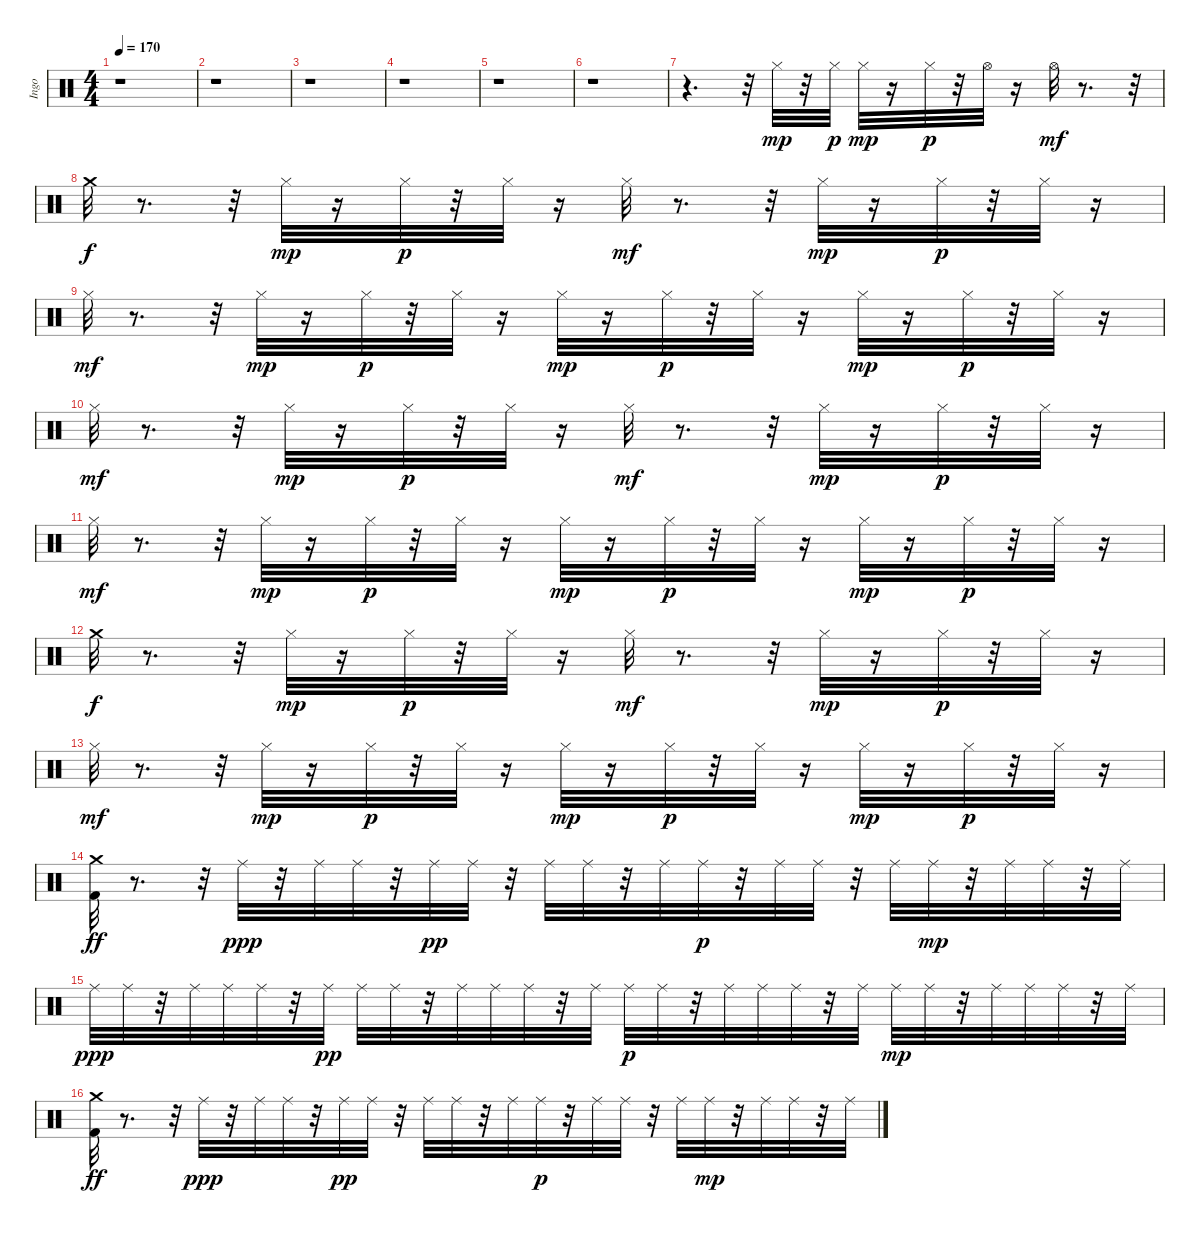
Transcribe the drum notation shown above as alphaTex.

\track ("Ingo" "Ingo") {instrument percussion}
\staff {score}
\articulation defaults
\ts (4 4)
\tempo 170
\clef neutral
\ks c
r.1{dy ff} |
r.1 |
r.1 |
r.1 |
r.1 |
r.1 |
r.4{d} r.32 "Hi-Hat (closed)".32{dy mp} r.32 "Hi-Hat (closed)".32{dy p} "Hi-Hat (closed)".32{dy mp} r.16 "Hi-Hat (closed)".32{dy p} r.32 "Hi-Hat (open)".32 r.16 "Hi-Hat (open)".32{dy mf} r.8{d} r.32 |
"Crash medium (hit)".32{dy f} r.8{d} r.32 "Hi-Hat (closed)".32{dy mp} r.16 "Hi-Hat (closed)".32{dy p} r.32 "Hi-Hat (closed)".32 r.16 "Hi-Hat (closed)".32{dy mf} r.8{d} r.32 "Hi-Hat (closed)".32{dy mp} r.16 "Hi-Hat (closed)".32{dy p} r.32 "Hi-Hat (closed)".32 r.16 |
"Hi-Hat (closed)".32{dy mf} r.8{d} r.32 "Hi-Hat (closed)".32{dy mp} r.16 "Hi-Hat (closed)".32{dy p} r.32 "Hi-Hat (closed)".32 r.16 "Hi-Hat (closed)".32{dy mp} r.16 "Hi-Hat (closed)".32{dy p} r.32 "Hi-Hat (closed)".32 r.16 "Hi-Hat (closed)".32{dy mp} r.16 "Hi-Hat (closed)".32{dy p} r.32 "Hi-Hat (closed)".32 r.16 |
"Hi-Hat (closed)".32{dy mf} r.8{d} r.32 "Hi-Hat (closed)".32{dy mp} r.16 "Hi-Hat (closed)".32{dy p} r.32 "Hi-Hat (closed)".32 r.16 "Hi-Hat (closed)".32{dy mf} r.8{d} r.32 "Hi-Hat (closed)".32{dy mp} r.16 "Hi-Hat (closed)".32{dy p} r.32 "Hi-Hat (closed)".32 r.16 |
"Hi-Hat (closed)".32{dy mf} r.8{d} r.32 "Hi-Hat (closed)".32{dy mp} r.16 "Hi-Hat (closed)".32{dy p} r.32 "Hi-Hat (closed)".32 r.16 "Hi-Hat (closed)".32{dy mp} r.16 "Hi-Hat (closed)".32{dy p} r.32 "Hi-Hat (closed)".32 r.16 "Hi-Hat (closed)".32{dy mp} r.16 "Hi-Hat (closed)".32{dy p} r.32 "Hi-Hat (closed)".32 r.16 |
"Crash medium (hit)".32{dy f} r.8{d} r.32 "Hi-Hat (closed)".32{dy mp} r.16 "Hi-Hat (closed)".32{dy p} r.32 "Hi-Hat (closed)".32 r.16 "Hi-Hat (closed)".32{dy mf} r.8{d} r.32 "Hi-Hat (closed)".32{dy mp} r.16 "Hi-Hat (closed)".32{dy p} r.32 "Hi-Hat (closed)".32 r.16 |
"Hi-Hat (closed)".32{dy mf} r.8{d} r.32 "Hi-Hat (closed)".32{dy mp} r.16 "Hi-Hat (closed)".32{dy p} r.32 "Hi-Hat (closed)".32 r.16 "Hi-Hat (closed)".32{dy mp} r.16 "Hi-Hat (closed)".32{dy p} r.32 "Hi-Hat (closed)".32 r.16 "Hi-Hat (closed)".32{dy mp} r.16 "Hi-Hat (closed)".32{dy p} r.32 "Hi-Hat (closed)".32 r.16 |
("Crash medium (hit)" "Kick (hit) 2").32{dy ff} r.8{d} r.32 "Ride (middle)".32{dy ppp} r.32 "Ride (middle)".32 "Ride (middle)".32 r.32 "Ride (middle)".32{dy pp} "Ride (middle)".32 r.32 "Ride (middle)".32 "Ride (middle)".32 r.32 "Ride (middle)".32 "Ride (middle)".32{dy p} r.32 "Ride (middle)".32 "Ride (middle)".32 r.32 "Ride (middle)".32 "Ride (middle)".32{dy mp} r.32 "Ride (middle)".32 "Ride (middle)".32 r.32 "Ride (middle)".32 |
"Ride (middle)".32{dy ppp} "Ride (middle)".32 r.32 "Ride (middle)".32 "Ride (middle)".32 "Ride (middle)".32 r.32 "Ride (middle)".32{dy pp} "Ride (middle)".32 "Ride (middle)".32 r.32 "Ride (middle)".32 "Ride (middle)".32 "Ride (middle)".32 r.32 "Ride (middle)".32 "Ride (middle)".32{dy p} "Ride (middle)".32 r.32 "Ride (middle)".32 "Ride (middle)".32 "Ride (middle)".32 r.32 "Ride (middle)".32 "Ride (middle)".32{dy mp} "Ride (middle)".32 r.32 "Ride (middle)".32 "Ride (middle)".32 "Ride (middle)".32 r.32 "Ride (middle)".32 |
("Crash medium (hit)" "Kick (hit) 2").32{dy ff} r.8{d} r.32 "Ride (middle)".32{dy ppp} r.32 "Ride (middle)".32 "Ride (middle)".32 r.32 "Ride (middle)".32{dy pp} "Ride (middle)".32 r.32 "Ride (middle)".32 "Ride (middle)".32 r.32 "Ride (middle)".32 "Ride (middle)".32{dy p} r.32 "Ride (middle)".32 "Ride (middle)".32 r.32 "Ride (middle)".32 "Ride (middle)".32{dy mp} r.32 "Ride (middle)".32 "Ride (middle)".32 r.32 "Ride (middle)".32
